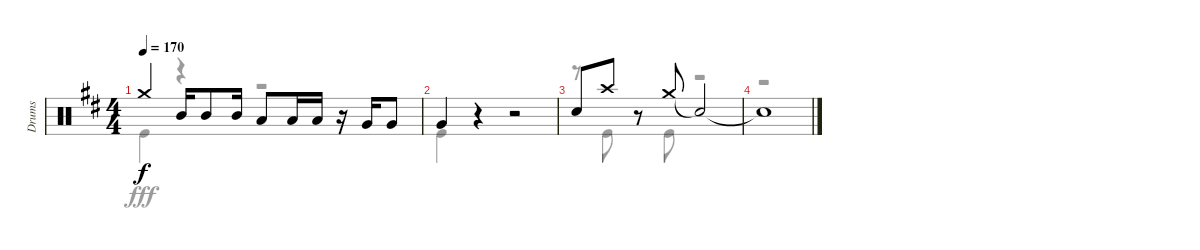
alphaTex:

\track ("Drums" "Drums") {instrument percussion}
\staff {score}
\articulation defaults
\voice
\ts (4 4)
\tempo 170
\clef neutral
\ks d "Crash medium (hit)".4{dy f} "Mid Tom (hit)".16 "Mid Tom (hit)".8 "Mid Tom (hit)".16 "Low Tom (hit)".8 "Low Tom (hit)".16 "Low Tom (hit)".16
r.16 "Very Low Tom (hit)".16 "Very Low Tom (hit)".8 |
"Very Low Tom (hit)".4 r.4 r.2 |
"Snare (hit) 2".8 "Crash high (hit)".8 r.8 "Crash medium (hit)".8 "Snare (hit)"{t}.2 |
"Snare (hit)"{t}.1
\voice
\clef neutral
\ottava regular
\simile none
\ks d "Kick (hit)".4{dy fff}
r.4 r.2 |
"Kick (hit)".4 r.4 r.2 |
r.8 "Kick (hit)".8 r.8 "Kick (hit)".8 r.2 |
r.1
